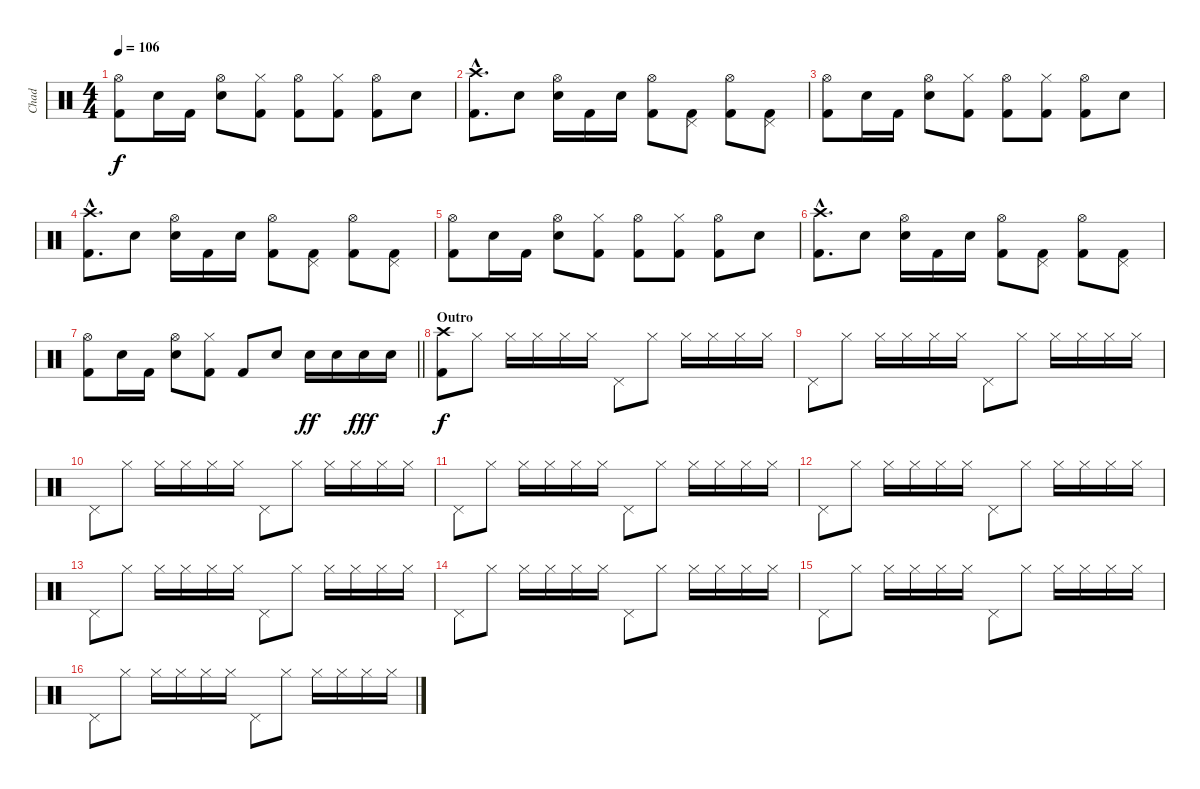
\track ("Chad" "Chad") {instrument percussion}
\staff {score}
\articulation defaults
\ts (4 4)
\tempo 106
\clef neutral
\ks c
("Hi-Hat (open)" "Kick (hit) 2").8{dy f} "Electric Snare (hit)".16 "Kick (hit) 2".16 ("Hi-Hat (open)" "Electric Snare (hit)").8 ("Hi-Hat (closed)" "Kick (hit) 2").8 ("Hi-Hat (open)" "Kick (hit) 2").8 ("Hi-Hat (closed)" "Kick (hit) 2").8 ("Hi-Hat (open)" "Kick (hit) 2").8 "Electric Snare (hit)".8 |
("Crash high (hit)"{hac} "Kick (hit) 2"{hac}).8{d} "Electric Snare (hit)".8 ("Hi-Hat (open)" "Electric Snare (hit)").16 "Kick (hit) 2".16 "Electric Snare (hit)".16 ("Hi-Hat (open)" "Kick (hit) 2").8 ("Pedal Hi-Hat (hit)" "Kick (hit) 2").8 ("Hi-Hat (open)" "Kick (hit) 2").8 ("Pedal Hi-Hat (hit)" "Kick (hit) 2").8 |
("Hi-Hat (open)" "Kick (hit) 2").8 "Electric Snare (hit)".16 "Kick (hit) 2".16 ("Hi-Hat (open)" "Electric Snare (hit)").8 ("Hi-Hat (closed)" "Kick (hit) 2").8 ("Hi-Hat (open)" "Kick (hit) 2").8 ("Hi-Hat (closed)" "Kick (hit) 2").8 ("Hi-Hat (open)" "Kick (hit) 2").8 "Electric Snare (hit)".8 |
("Crash high (hit)"{hac} "Kick (hit) 2"{hac}).8{d} "Electric Snare (hit)".8 ("Hi-Hat (open)" "Electric Snare (hit)").16 "Kick (hit) 2".16 "Electric Snare (hit)".16 ("Hi-Hat (open)" "Kick (hit) 2").8 ("Pedal Hi-Hat (hit)" "Kick (hit) 2").8 ("Hi-Hat (open)" "Kick (hit) 2").8 ("Pedal Hi-Hat (hit)" "Kick (hit) 2").8 |
("Hi-Hat (open)" "Kick (hit) 2").8 "Electric Snare (hit)".16 "Kick (hit) 2".16 ("Hi-Hat (open)" "Electric Snare (hit)").8 ("Hi-Hat (closed)" "Kick (hit) 2").8 ("Hi-Hat (open)" "Kick (hit) 2").8 ("Hi-Hat (closed)" "Kick (hit) 2").8 ("Hi-Hat (open)" "Kick (hit) 2").8 "Electric Snare (hit)".8 |
("Crash high (hit)"{hac} "Kick (hit) 2"{hac}).8{d} "Electric Snare (hit)".8 ("Hi-Hat (open)" "Electric Snare (hit)").16 "Kick (hit) 2".16 "Electric Snare (hit)".16 ("Hi-Hat (open)" "Kick (hit) 2").8 ("Pedal Hi-Hat (hit)" "Kick (hit) 2").8 ("Hi-Hat (open)" "Kick (hit) 2").8 ("Pedal Hi-Hat (hit)" "Kick (hit) 2").8 |
\barLineRight lightlight
("Hi-Hat (open)" "Kick (hit) 2").8 "Electric Snare (hit)".16 "Kick (hit) 2".16 ("Hi-Hat (open)" "Electric Snare (hit)").8 ("Hi-Hat (closed)" "Kick (hit) 2").8 "Kick (hit) 2".8 "Electric Snare (hit)".8 "Electric Snare (hit)".16{dy ff} "Electric Snare (hit)".16 "Electric Snare (hit)".16{dy fff} "Electric Snare (hit)".16 |
\section ("" "Outro")
("Crash high (hit)" "Kick (hit) 2").8{dy f volume 12} "Hi-Hat (closed)".8 "Hi-Hat (closed)".16 "Hi-Hat (closed)".16 "Hi-Hat (closed)".16 "Hi-Hat (closed)".16 "Pedal Hi-Hat (hit)".8 "Hi-Hat (closed)".8 "Hi-Hat (closed)".16 "Hi-Hat (closed)".16 "Hi-Hat (closed)".16 "Hi-Hat (closed)".16 |
"Pedal Hi-Hat (hit)".8 "Hi-Hat (closed)".8 "Hi-Hat (closed)".16 "Hi-Hat (closed)".16 "Hi-Hat (closed)".16 "Hi-Hat (closed)".16 "Pedal Hi-Hat (hit)".8 "Hi-Hat (closed)".8 "Hi-Hat (closed)".16 "Hi-Hat (closed)".16 "Hi-Hat (closed)".16 "Hi-Hat (closed)".16 |
"Pedal Hi-Hat (hit)".8 "Hi-Hat (closed)".8 "Hi-Hat (closed)".16 "Hi-Hat (closed)".16 "Hi-Hat (closed)".16 "Hi-Hat (closed)".16 "Pedal Hi-Hat (hit)".8 "Hi-Hat (closed)".8 "Hi-Hat (closed)".16 "Hi-Hat (closed)".16 "Hi-Hat (closed)".16 "Hi-Hat (closed)".16 |
"Pedal Hi-Hat (hit)".8 "Hi-Hat (closed)".8 "Hi-Hat (closed)".16 "Hi-Hat (closed)".16 "Hi-Hat (closed)".16 "Hi-Hat (closed)".16 "Pedal Hi-Hat (hit)".8 "Hi-Hat (closed)".8 "Hi-Hat (closed)".16 "Hi-Hat (closed)".16 "Hi-Hat (closed)".16 "Hi-Hat (closed)".16 |
"Pedal Hi-Hat (hit)".8 "Hi-Hat (closed)".8 "Hi-Hat (closed)".16 "Hi-Hat (closed)".16 "Hi-Hat (closed)".16 "Hi-Hat (closed)".16 "Pedal Hi-Hat (hit)".8 "Hi-Hat (closed)".8 "Hi-Hat (closed)".16 "Hi-Hat (closed)".16 "Hi-Hat (closed)".16 "Hi-Hat (closed)".16 |
"Pedal Hi-Hat (hit)".8 "Hi-Hat (closed)".8 "Hi-Hat (closed)".16 "Hi-Hat (closed)".16 "Hi-Hat (closed)".16 "Hi-Hat (closed)".16 "Pedal Hi-Hat (hit)".8 "Hi-Hat (closed)".8 "Hi-Hat (closed)".16 "Hi-Hat (closed)".16 "Hi-Hat (closed)".16 "Hi-Hat (closed)".16 |
"Pedal Hi-Hat (hit)".8 "Hi-Hat (closed)".8 "Hi-Hat (closed)".16 "Hi-Hat (closed)".16 "Hi-Hat (closed)".16 "Hi-Hat (closed)".16 "Pedal Hi-Hat (hit)".8 "Hi-Hat (closed)".8 "Hi-Hat (closed)".16 "Hi-Hat (closed)".16 "Hi-Hat (closed)".16 "Hi-Hat (closed)".16 |
"Pedal Hi-Hat (hit)".8 "Hi-Hat (closed)".8 "Hi-Hat (closed)".16 "Hi-Hat (closed)".16 "Hi-Hat (closed)".16 "Hi-Hat (closed)".16 "Pedal Hi-Hat (hit)".8 "Hi-Hat (closed)".8 "Hi-Hat (closed)".16 "Hi-Hat (closed)".16 "Hi-Hat (closed)".16 "Hi-Hat (closed)".16 |
"Pedal Hi-Hat (hit)".8 "Hi-Hat (closed)".8 "Hi-Hat (closed)".16 "Hi-Hat (closed)".16 "Hi-Hat (closed)".16 "Hi-Hat (closed)".16 "Pedal Hi-Hat (hit)".8 "Hi-Hat (closed)".8 "Hi-Hat (closed)".16 "Hi-Hat (closed)".16 "Hi-Hat (closed)".16 "Hi-Hat (closed)".16
